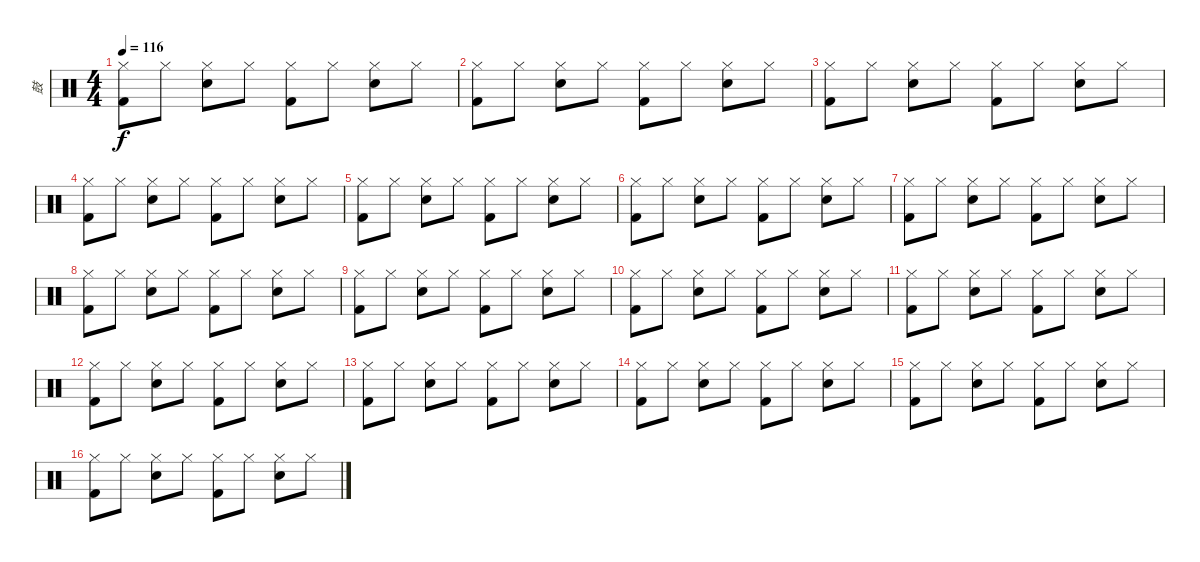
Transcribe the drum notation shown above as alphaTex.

\track ("鼓" "鼓") {instrument percussion}
\staff {score}
\articulation defaults
\ts (4 4)
\tempo 116
\clef neutral
\ks c
("Kick (hit) 2" "Hi-Hat (closed)").8{dy f} "Hi-Hat (closed)".8 ("Snare (hit) 2" "Hi-Hat (closed)").8 "Hi-Hat (closed)".8 ("Kick (hit) 2" "Hi-Hat (closed)").8 "Hi-Hat (closed)".8 ("Snare (hit) 2" "Hi-Hat (closed)").8 "Hi-Hat (closed)".8 |
("Kick (hit) 2" "Hi-Hat (closed)").8 "Hi-Hat (closed)".8 ("Snare (hit) 2" "Hi-Hat (closed)").8 "Hi-Hat (closed)".8 ("Kick (hit) 2" "Hi-Hat (closed)").8 "Hi-Hat (closed)".8 ("Snare (hit) 2" "Hi-Hat (closed)").8 "Hi-Hat (closed)".8 |
("Kick (hit) 2" "Hi-Hat (closed)").8 "Hi-Hat (closed)".8 ("Snare (hit) 2" "Hi-Hat (closed)").8 "Hi-Hat (closed)".8 ("Kick (hit) 2" "Hi-Hat (closed)").8 "Hi-Hat (closed)".8 ("Snare (hit) 2" "Hi-Hat (closed)").8 "Hi-Hat (closed)".8 |
("Kick (hit) 2" "Hi-Hat (closed)").8 "Hi-Hat (closed)".8 ("Snare (hit) 2" "Hi-Hat (closed)").8 "Hi-Hat (closed)".8 ("Kick (hit) 2" "Hi-Hat (closed)").8 "Hi-Hat (closed)".8 ("Snare (hit) 2" "Hi-Hat (closed)").8 "Hi-Hat (closed)".8 |
("Kick (hit) 2" "Hi-Hat (closed)").8 "Hi-Hat (closed)".8 ("Snare (hit) 2" "Hi-Hat (closed)").8 "Hi-Hat (closed)".8 ("Kick (hit) 2" "Hi-Hat (closed)").8 "Hi-Hat (closed)".8 ("Snare (hit) 2" "Hi-Hat (closed)").8 "Hi-Hat (closed)".8 |
("Kick (hit) 2" "Hi-Hat (closed)").8 "Hi-Hat (closed)".8 ("Snare (hit) 2" "Hi-Hat (closed)").8 "Hi-Hat (closed)".8 ("Kick (hit) 2" "Hi-Hat (closed)").8 "Hi-Hat (closed)".8 ("Snare (hit) 2" "Hi-Hat (closed)").8 "Hi-Hat (closed)".8 |
("Kick (hit) 2" "Hi-Hat (closed)").8 "Hi-Hat (closed)".8 ("Snare (hit) 2" "Hi-Hat (closed)").8 "Hi-Hat (closed)".8 ("Kick (hit) 2" "Hi-Hat (closed)").8 "Hi-Hat (closed)".8 ("Snare (hit) 2" "Hi-Hat (closed)").8 "Hi-Hat (closed)".8 |
("Kick (hit) 2" "Hi-Hat (closed)").8 "Hi-Hat (closed)".8 ("Snare (hit) 2" "Hi-Hat (closed)").8 "Hi-Hat (closed)".8 ("Kick (hit) 2" "Hi-Hat (closed)").8 "Hi-Hat (closed)".8 ("Snare (hit) 2" "Hi-Hat (closed)").8 "Hi-Hat (closed)".8 |
("Kick (hit) 2" "Hi-Hat (closed)").8 "Hi-Hat (closed)".8 ("Snare (hit) 2" "Hi-Hat (closed)").8 "Hi-Hat (closed)".8 ("Kick (hit) 2" "Hi-Hat (closed)").8 "Hi-Hat (closed)".8 ("Snare (hit) 2" "Hi-Hat (closed)").8 "Hi-Hat (closed)".8 |
("Kick (hit) 2" "Hi-Hat (closed)").8 "Hi-Hat (closed)".8 ("Snare (hit) 2" "Hi-Hat (closed)").8 "Hi-Hat (closed)".8 ("Kick (hit) 2" "Hi-Hat (closed)").8 "Hi-Hat (closed)".8 ("Snare (hit) 2" "Hi-Hat (closed)").8 "Hi-Hat (closed)".8 |
("Kick (hit) 2" "Hi-Hat (closed)").8 "Hi-Hat (closed)".8 ("Snare (hit) 2" "Hi-Hat (closed)").8 "Hi-Hat (closed)".8 ("Kick (hit) 2" "Hi-Hat (closed)").8 "Hi-Hat (closed)".8 ("Snare (hit) 2" "Hi-Hat (closed)").8 "Hi-Hat (closed)".8 |
("Kick (hit) 2" "Hi-Hat (closed)").8 "Hi-Hat (closed)".8 ("Snare (hit) 2" "Hi-Hat (closed)").8 "Hi-Hat (closed)".8 ("Kick (hit) 2" "Hi-Hat (closed)").8 "Hi-Hat (closed)".8 ("Snare (hit) 2" "Hi-Hat (closed)").8 "Hi-Hat (closed)".8 |
("Kick (hit) 2" "Hi-Hat (closed)").8 "Hi-Hat (closed)".8 ("Snare (hit) 2" "Hi-Hat (closed)").8 "Hi-Hat (closed)".8 ("Kick (hit) 2" "Hi-Hat (closed)").8 "Hi-Hat (closed)".8 ("Snare (hit) 2" "Hi-Hat (closed)").8 "Hi-Hat (closed)".8 |
("Kick (hit) 2" "Hi-Hat (closed)").8 "Hi-Hat (closed)".8 ("Snare (hit) 2" "Hi-Hat (closed)").8 "Hi-Hat (closed)".8 ("Kick (hit) 2" "Hi-Hat (closed)").8 "Hi-Hat (closed)".8 ("Snare (hit) 2" "Hi-Hat (closed)").8 "Hi-Hat (closed)".8 |
("Kick (hit) 2" "Hi-Hat (closed)").8 "Hi-Hat (closed)".8 ("Snare (hit) 2" "Hi-Hat (closed)").8 "Hi-Hat (closed)".8 ("Kick (hit) 2" "Hi-Hat (closed)").8 "Hi-Hat (closed)".8 ("Snare (hit) 2" "Hi-Hat (closed)").8 "Hi-Hat (closed)".8 |
("Kick (hit) 2" "Hi-Hat (closed)").8 "Hi-Hat (closed)".8 ("Snare (hit) 2" "Hi-Hat (closed)").8 "Hi-Hat (closed)".8 ("Kick (hit) 2" "Hi-Hat (closed)").8 "Hi-Hat (closed)".8 ("Snare (hit) 2" "Hi-Hat (closed)").8 "Hi-Hat (closed)".8
